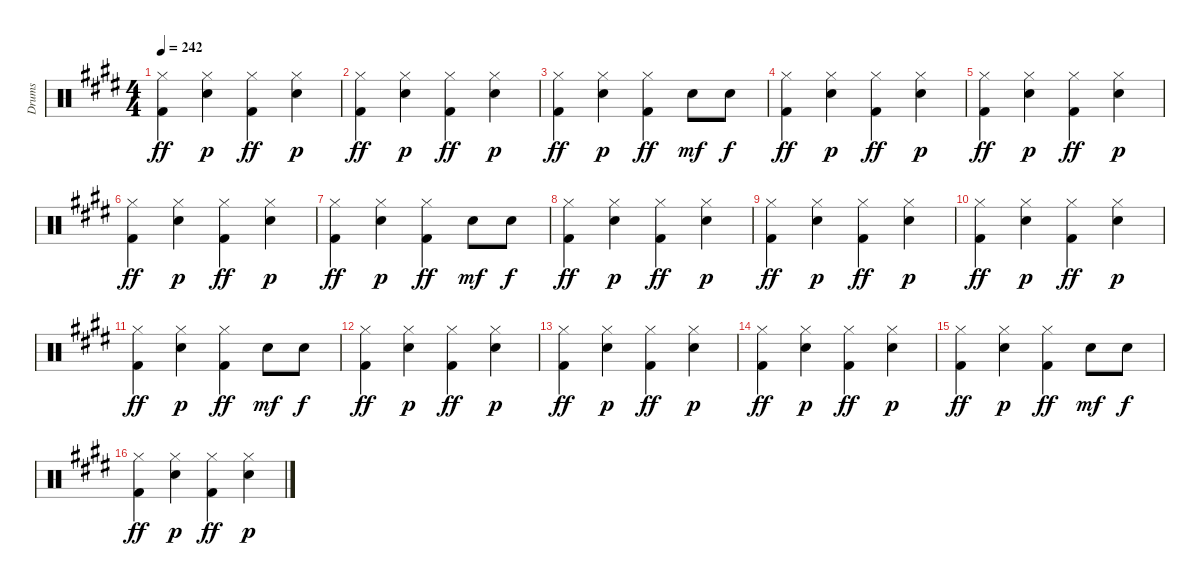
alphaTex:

\track ("Drums" "Drums") {instrument percussion}
\staff {score}
\articulation defaults
\ts (4 4)
\tempo 242
\clef neutral
\ks e
("Hi-Hat (closed)" "Kick (hit) 2").4{dy ff} ("Hi-Hat (closed)" "Electric Snare (hit)").4{dy p} ("Hi-Hat (closed)" "Kick (hit) 2").4{dy ff} ("Hi-Hat (closed)" "Electric Snare (hit)").4{dy p} |
("Hi-Hat (closed)" "Kick (hit) 2").4{dy ff} ("Hi-Hat (closed)" "Electric Snare (hit)").4{dy p} ("Hi-Hat (closed)" "Kick (hit) 2").4{dy ff} ("Hi-Hat (closed)" "Electric Snare (hit)").4{dy p} |
("Hi-Hat (closed)" "Kick (hit) 2").4{dy ff} ("Hi-Hat (closed)" "Electric Snare (hit)").4{dy p} ("Hi-Hat (closed)" "Kick (hit) 2").4{dy ff} "Electric Snare (hit)".8{dy mf} "Electric Snare (hit)".8{dy f} |
("Hi-Hat (closed)" "Kick (hit) 2").4{dy ff} ("Hi-Hat (closed)" "Electric Snare (hit)").4{dy p} ("Hi-Hat (closed)" "Kick (hit) 2").4{dy ff} ("Hi-Hat (closed)" "Electric Snare (hit)").4{dy p} |
("Hi-Hat (closed)" "Kick (hit) 2").4{dy ff} ("Hi-Hat (closed)" "Electric Snare (hit)").4{dy p} ("Hi-Hat (closed)" "Kick (hit) 2").4{dy ff} ("Hi-Hat (closed)" "Electric Snare (hit)").4{dy p} |
("Hi-Hat (closed)" "Kick (hit) 2").4{dy ff} ("Hi-Hat (closed)" "Electric Snare (hit)").4{dy p} ("Hi-Hat (closed)" "Kick (hit) 2").4{dy ff} ("Hi-Hat (closed)" "Electric Snare (hit)").4{dy p} |
("Hi-Hat (closed)" "Kick (hit) 2").4{dy ff} ("Hi-Hat (closed)" "Electric Snare (hit)").4{dy p} ("Hi-Hat (closed)" "Kick (hit) 2").4{dy ff} "Electric Snare (hit)".8{dy mf} "Electric Snare (hit)".8{dy f} |
("Hi-Hat (closed)" "Kick (hit) 2").4{dy ff} ("Hi-Hat (closed)" "Electric Snare (hit)").4{dy p} ("Hi-Hat (closed)" "Kick (hit) 2").4{dy ff} ("Hi-Hat (closed)" "Electric Snare (hit)").4{dy p} |
("Hi-Hat (closed)" "Kick (hit) 2").4{dy ff} ("Hi-Hat (closed)" "Electric Snare (hit)").4{dy p} ("Hi-Hat (closed)" "Kick (hit) 2").4{dy ff} ("Hi-Hat (closed)" "Electric Snare (hit)").4{dy p} |
("Hi-Hat (closed)" "Kick (hit) 2").4{dy ff} ("Hi-Hat (closed)" "Electric Snare (hit)").4{dy p} ("Hi-Hat (closed)" "Kick (hit) 2").4{dy ff} ("Hi-Hat (closed)" "Electric Snare (hit)").4{dy p} |
("Hi-Hat (closed)" "Kick (hit) 2").4{dy ff} ("Hi-Hat (closed)" "Electric Snare (hit)").4{dy p} ("Hi-Hat (closed)" "Kick (hit) 2").4{dy ff} "Electric Snare (hit)".8{dy mf} "Electric Snare (hit)".8{dy f} |
("Hi-Hat (closed)" "Kick (hit) 2").4{dy ff} ("Hi-Hat (closed)" "Electric Snare (hit)").4{dy p} ("Hi-Hat (closed)" "Kick (hit) 2").4{dy ff} ("Hi-Hat (closed)" "Electric Snare (hit)").4{dy p} |
("Hi-Hat (closed)" "Kick (hit) 2").4{dy ff} ("Hi-Hat (closed)" "Electric Snare (hit)").4{dy p} ("Hi-Hat (closed)" "Kick (hit) 2").4{dy ff} ("Hi-Hat (closed)" "Electric Snare (hit)").4{dy p} |
("Hi-Hat (closed)" "Kick (hit) 2").4{dy ff} ("Hi-Hat (closed)" "Electric Snare (hit)").4{dy p} ("Hi-Hat (closed)" "Kick (hit) 2").4{dy ff} ("Hi-Hat (closed)" "Electric Snare (hit)").4{dy p} |
("Hi-Hat (closed)" "Kick (hit) 2").4{dy ff} ("Hi-Hat (closed)" "Electric Snare (hit)").4{dy p} ("Hi-Hat (closed)" "Kick (hit) 2").4{dy ff} "Electric Snare (hit)".8{dy mf} "Electric Snare (hit)".8{dy f} |
("Hi-Hat (closed)" "Kick (hit) 2").4{dy ff} ("Hi-Hat (closed)" "Electric Snare (hit)").4{dy p} ("Hi-Hat (closed)" "Kick (hit) 2").4{dy ff} ("Hi-Hat (closed)" "Electric Snare (hit)").4{dy p}
